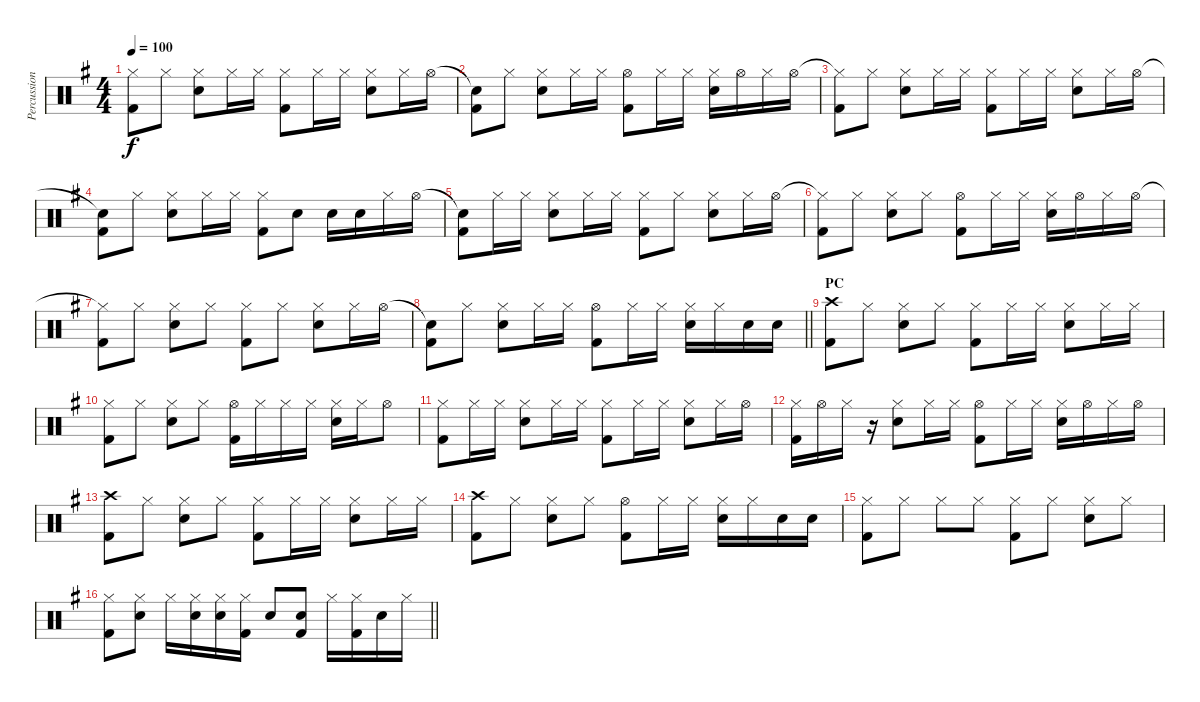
\track ("Percussion" "Percussion") {instrument percussion}
\staff {score}
\articulation defaults
\ts (4 4)
\tempo 100
\clef neutral
\ks g
("Hi-Hat (closed)"{t} "Kick (hit) 2").8{dy f} "Hi-Hat (closed)".8 ("Hi-Hat (closed)" "Electric Snare (hit)").8 "Hi-Hat (closed)".16 "Hi-Hat (closed)".16 ("Hi-Hat (closed)" "Kick (hit) 2").8 "Hi-Hat (closed)".16 "Hi-Hat (closed)".16 ("Hi-Hat (closed)" "Electric Snare (hit)").8 "Hi-Hat (closed)".16 "Hi-Hat (open)".16 |
("Snare (hit)"{t} "Kick (hit) 2").8 "Hi-Hat (closed)".8 ("Hi-Hat (closed)" "Electric Snare (hit)").8 "Hi-Hat (closed)".16 "Hi-Hat (closed)".16 ("Hi-Hat (open)" "Kick (hit) 2").8 "Hi-Hat (closed)".16 "Hi-Hat (closed)".16 ("Hi-Hat (closed)" "Electric Snare (hit)").16 "Hi-Hat (open)".16 "Hi-Hat (closed)".16 "Hi-Hat (open)".16 |
("Hi-Hat (closed)"{t} "Kick (hit) 2").8 "Hi-Hat (closed)".8 ("Hi-Hat (closed)" "Electric Snare (hit)").8 "Hi-Hat (closed)".16 "Hi-Hat (closed)".16 ("Hi-Hat (closed)" "Kick (hit) 2").8 "Hi-Hat (closed)".16 "Hi-Hat (closed)".16 ("Hi-Hat (closed)" "Electric Snare (hit)").8 "Hi-Hat (closed)".16 "Hi-Hat (open)".16 |
("Snare (hit)"{t} "Kick (hit) 2").8 "Hi-Hat (closed)".8 ("Hi-Hat (closed)" "Electric Snare (hit)").8 "Hi-Hat (closed)".16 "Hi-Hat (closed)".16 ("Hi-Hat (closed)" "Kick (hit) 2").8 "Electric Snare (hit)".8 "Electric Snare (hit)".16 "Electric Snare (hit)".16 "Hi-Hat (closed)".16 "Hi-Hat (open)".16 |
("Snare (hit)"{t} "Kick (hit) 2").8 "Hi-Hat (closed)".16 "Hi-Hat (closed)".16 ("Hi-Hat (closed)" "Electric Snare (hit)").8 "Hi-Hat (closed)".16 "Hi-Hat (closed)".16 ("Hi-Hat (closed)" "Kick (hit) 2").8 "Hi-Hat (closed)".8 ("Hi-Hat (closed)" "Electric Snare (hit)").8 "Hi-Hat (closed)".16 "Hi-Hat (open)".16 |
("Hi-Hat (closed)"{t} "Kick (hit) 2").8 "Hi-Hat (closed)".8 ("Hi-Hat (closed)" "Electric Snare (hit)").8 "Hi-Hat (closed)".8 ("Hi-Hat (open)" "Kick (hit) 2").8 "Hi-Hat (closed)".16 "Hi-Hat (closed)".16 ("Hi-Hat (closed)" "Electric Snare (hit)").16 "Hi-Hat (open)".16 "Hi-Hat (closed)".16 "Hi-Hat (open)".16 |
("Hi-Hat (closed)"{t} "Kick (hit) 2").8 "Hi-Hat (closed)".8 ("Hi-Hat (closed)" "Electric Snare (hit)").8 "Hi-Hat (closed)".8 ("Hi-Hat (closed)" "Kick (hit) 2").8 "Hi-Hat (closed)".8 ("Hi-Hat (closed)" "Electric Snare (hit)").8 "Hi-Hat (closed)".16 "Hi-Hat (open)".16 |
\barLineRight lightlight
("Snare (hit)"{t} "Kick (hit) 2").8 "Hi-Hat (closed)".8 ("Hi-Hat (closed)" "Electric Snare (hit)").8 "Hi-Hat (closed)".16 "Hi-Hat (closed)".16 ("Hi-Hat (open)" "Kick (hit) 2").8 "Hi-Hat (closed)".16 "Hi-Hat (closed)".16 ("Hi-Hat (closed)" "Electric Snare (hit)").16 "Hi-Hat (closed)".16 "Electric Snare (hit)".16 "Electric Snare (hit)".16 |
\section ("" "PC")
("Crash high (hit)" "Kick (hit) 2").8 "Hi-Hat (closed)".8 ("Hi-Hat (closed)" "Electric Snare (hit)").8 "Hi-Hat (closed)".8 ("Hi-Hat (closed)" "Kick (hit) 2").8 "Hi-Hat (closed)".16 "Hi-Hat (closed)".16 ("Hi-Hat (closed)" "Electric Snare (hit)").8 "Hi-Hat (closed)".16 "Hi-Hat (closed)".16 |
("Hi-Hat (closed)" "Kick (hit) 2").8 "Hi-Hat (closed)".8 ("Hi-Hat (closed)" "Electric Snare (hit)").8 "Hi-Hat (closed)".8 ("Hi-Hat (open)" "Kick (hit) 2").16 "Hi-Hat (closed)".16 "Hi-Hat (closed)".16 "Hi-Hat (closed)".16 ("Hi-Hat (closed)" "Electric Snare (hit)").16 "Hi-Hat (closed)".16 "Hi-Hat (open)".8 |
("Hi-Hat (closed)" "Kick (hit) 2").8 "Hi-Hat (closed)".16 "Hi-Hat (closed)".16 ("Hi-Hat (closed)" "Electric Snare (hit)").8 "Hi-Hat (closed)".16 "Hi-Hat (closed)".16 ("Hi-Hat (closed)" "Kick (hit) 2").8 "Hi-Hat (closed)".16 "Hi-Hat (closed)".16 ("Hi-Hat (closed)" "Electric Snare (hit)").8 "Hi-Hat (closed)".16 "Hi-Hat (open)".16 |
("Hi-Hat (closed)" "Kick (hit) 2").16 "Hi-Hat (open)".16 "Hi-Hat (closed)".16 r.16 ("Hi-Hat (closed)" "Electric Snare (hit)").8 "Hi-Hat (closed)".16 "Hi-Hat (closed)".16 ("Hi-Hat (open)" "Kick (hit) 2").8 "Hi-Hat (closed)".16 "Hi-Hat (closed)".16 ("Hi-Hat (closed)" "Electric Snare (hit)").16 "Hi-Hat (open)".16 "Hi-Hat (closed)".16 "Hi-Hat (open)".16 |
("Crash high (hit)" "Kick (hit) 2").8 "Hi-Hat (closed)".8 ("Hi-Hat (closed)" "Electric Snare (hit)").8 "Hi-Hat (closed)".8 ("Hi-Hat (closed)" "Kick (hit) 2").8 "Hi-Hat (closed)".16 "Hi-Hat (closed)".16 ("Hi-Hat (closed)" "Electric Snare (hit)").8 "Hi-Hat (closed)".16 "Hi-Hat (closed)".16 |
("Crash high (hit)" "Kick (hit) 2").8 "Hi-Hat (closed)".8 ("Hi-Hat (closed)" "Electric Snare (hit)").8 "Hi-Hat (closed)".8 ("Hi-Hat (open)" "Kick (hit) 2").8 "Hi-Hat (closed)".16 "Hi-Hat (closed)".16 ("Hi-Hat (closed)" "Electric Snare (hit)").16 "Hi-Hat (closed)".16 "Electric Snare (hit)".16 "Electric Snare (hit)".16 |
("Hi-Hat (closed)" "Kick (hit) 2").8 "Hi-Hat (closed)".8 "Hi-Hat (closed)".8 "Hi-Hat (closed)".8 ("Hi-Hat (closed)" "Kick (hit) 2").8 "Hi-Hat (closed)".8 ("Hi-Hat (closed)" "Electric Snare (hit)").8 "Hi-Hat (closed)".8 |
\barLineRight lightlight
("Hi-Hat (closed)" "Kick (hit) 2").8 ("Hi-Hat (closed)" "Electric Snare (hit)").8 "Hi-Hat (closed)".16 ("Hi-Hat (closed)" "Electric Snare (hit)").16 ("Hi-Hat (closed)" "Electric Snare (hit)").16 ("Hi-Hat (closed)" "Kick (hit) 2").16 "Electric Snare (hit)".8 ("Electric Snare (hit)" "Kick (hit) 2").8 "Hi-Hat (closed)".16 ("Hi-Hat (closed)" "Kick (hit) 2").16 "Electric Snare (hit)".16 "Hi-Hat (closed)".16
